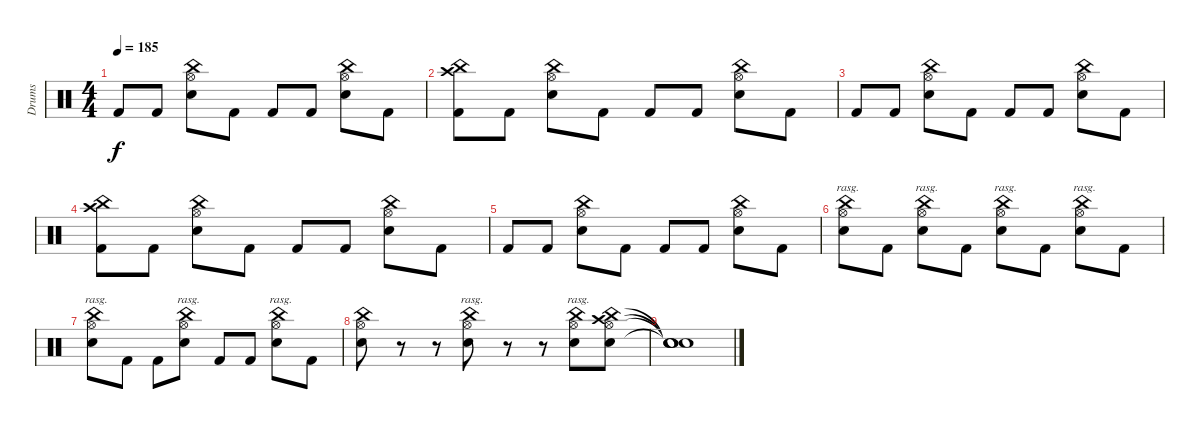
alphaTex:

\track ("Drums" "Drums") {instrument percussion}
\staff {score}
\articulation defaults
\ts (4 4)
\tempo 185
\clef neutral
\ks c "Kick (hit) 2".8{dy f} "Kick (hit) 2".8
("China (hit)" "Hi-Hat (open)" "Snare (hit) 2").8 "Kick (hit) 2".8 "Kick (hit) 2".8 "Kick (hit) 2".8 ("China (hit)" "Hi-Hat (open)" "Snare (hit) 2").8 "Kick (hit) 2".8 |
("Crash high (hit)" "China (hit)" "Kick (hit) 2").8 "Kick (hit) 2".8 ("China (hit)" "Hi-Hat (open)" "Snare (hit) 2").8 "Kick (hit) 2".8 "Kick (hit) 2".8 "Kick (hit) 2".8 ("China (hit)" "Hi-Hat (open)" "Snare (hit) 2").8 "Kick (hit) 2".8 |
"Kick (hit) 2".8 "Kick (hit) 2".8 ("China (hit)" "Hi-Hat (open)" "Snare (hit) 2").8 "Kick (hit) 2".8 "Kick (hit) 2".8 "Kick (hit) 2".8 ("China (hit)" "Hi-Hat (open)" "Snare (hit) 2").8 "Kick (hit) 2".8 |
("Crash high (hit)" "China (hit)" "Kick (hit) 2").8 "Kick (hit) 2".8 ("China (hit)" "Hi-Hat (open)" "Snare (hit) 2").8 "Kick (hit) 2".8 "Kick (hit) 2".8 "Kick (hit) 2".8 ("China (hit)" "Hi-Hat (open)" "Snare (hit) 2").8 "Kick (hit) 2".8 |
"Kick (hit) 2".8 "Kick (hit) 2".8 ("China (hit)" "Hi-Hat (open)" "Snare (hit) 2").8 "Kick (hit) 2".8 "Kick (hit) 2".8 "Kick (hit) 2".8 ("China (hit)" "Hi-Hat (open)" "Snare (hit) 2").8 "Kick (hit) 2".8 |
("China (hit)" "Hi-Hat (open)" "Snare (hit) 2").8{bd 120 rasg ii} "Kick (hit) 2".8 ("China (hit)" "Hi-Hat (open)" "Snare (hit) 2").8{bd 120 rasg ii} "Kick (hit) 2".8 ("China (hit)" "Hi-Hat (open)" "Snare (hit) 2").8{bd 120 rasg ii} "Kick (hit) 2".8 ("China (hit)" "Hi-Hat (open)" "Snare (hit) 2").8{bd 120 rasg ii} "Kick (hit) 2".8 |
("China (hit)" "Hi-Hat (open)" "Snare (hit) 2").8{bd 60 rasg ii} "Kick (hit) 2".8 "Kick (hit) 2".8 ("China (hit)" "Hi-Hat (open)" "Snare (hit) 2").8{bd 120 rasg ii} "Kick (hit) 2".8 "Kick (hit) 2".8 ("China (hit)" "Hi-Hat (open)" "Snare (hit) 2").8{bd 120 rasg ii} "Kick (hit) 2".8 |
("China (hit)" "Hi-Hat (open)" "Snare (hit) 2").8 r.8 r.8 ("China (hit)" "Hi-Hat (open)" "Snare (hit) 2").8{bd 120 rasg ii} r.8 r.8 ("China (hit)" "Hi-Hat (open)" "Snare (hit) 2").8{bd 120 rasg ii} ("China (hit)" "Hi-Hat (open)" "Snare (hit) 2" "Crash high (hit)").8{bd 120 rasg ii} |
("Snare (hit)"{t} "Snare (hit)"{t} "Snare (hit)"{t} "Snare (hit)"{t}).1
